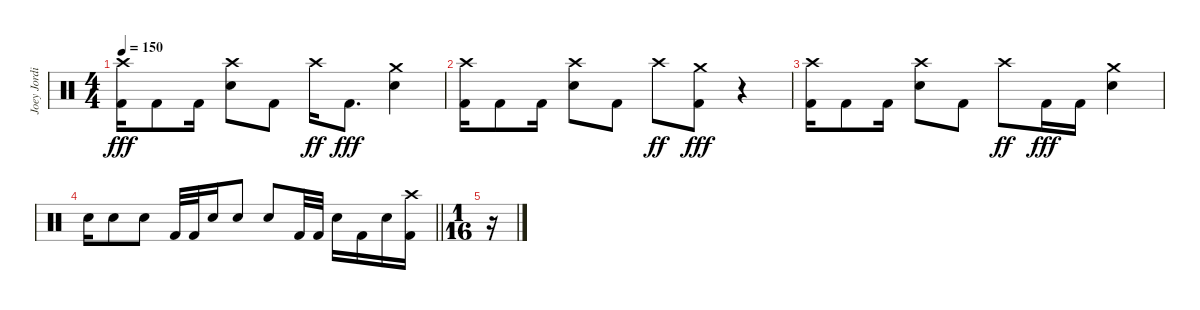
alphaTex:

\track ("Joey Jordison" "Joey Jordi") {instrument percussion}
\staff {score}
\articulation defaults
\ts (4 4)
\tempo 150
\clef neutral
\ks c
("Crash high (hit)" "Kick (hit) 2").16{dy fff} "Kick (hit) 2".8 "Kick (hit) 2".16 ("Crash high (hit)" "Electric Snare (hit)").8 "Kick (hit) 2".8 "Crash high (hit)".16{dy ff} "Kick (hit) 2".8{d dy fff} ("Crash medium (hit)" "Electric Snare (hit)").4 |
("Crash high (hit)" "Kick (hit) 2").16 "Kick (hit) 2".8 "Kick (hit) 2".16 ("Crash high (hit)" "Electric Snare (hit)").8 "Kick (hit) 2".8 "Crash high (hit)".8{dy ff} ("Crash medium (hit)" "Kick (hit) 2").8{dy fff} r.4{volume 0} |
("Crash high (hit)" "Kick (hit) 2").16{volume 13} "Kick (hit) 2".8 "Kick (hit) 2".16 ("Crash high (hit)" "Electric Snare (hit)").8 "Kick (hit) 2".8 "Crash high (hit)".8{dy ff} "Kick (hit) 2".16{dy fff} "Kick (hit) 2".16 ("Crash medium (hit)" "Electric Snare (hit)").4 |
\barLineRight lightlight "Electric Snare (hit)".16 "Electric Snare (hit)".8 "Electric Snare (hit)".8 "Kick (hit) 2".32 "Kick (hit) 2".32 "Electric Snare (hit)".16 "Electric Snare (hit)".8 "Electric Snare (hit)".8 "Kick (hit) 2".32 "Kick (hit) 2".32 "Electric Snare (hit)".16 "Kick (hit) 2".16 "Electric Snare (hit)".16
("Crash high (hit)" "Kick (hit) 2").16 |
\ts (1 16)
r.16{volume 0}
